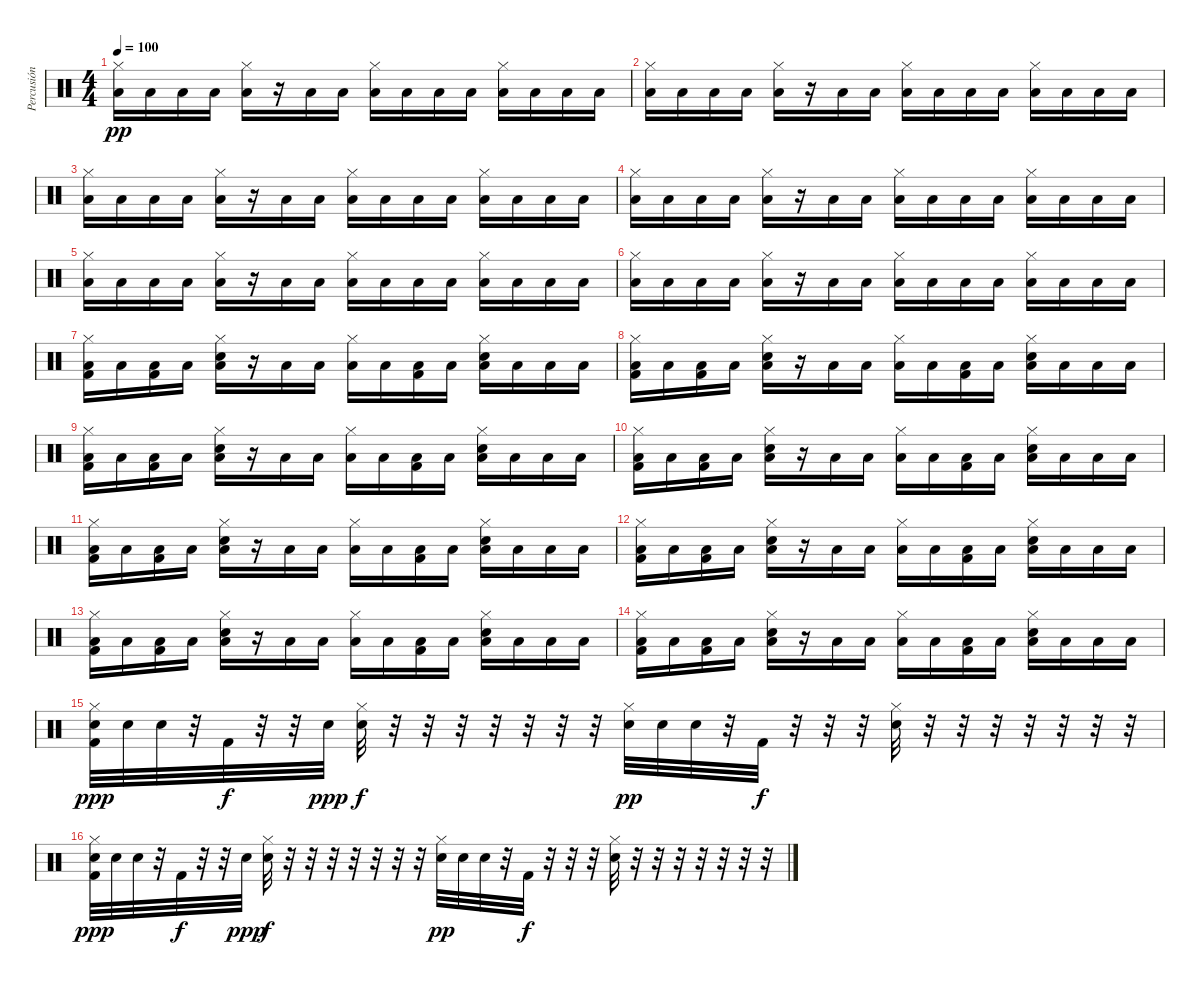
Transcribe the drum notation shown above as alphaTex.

\track ("Percusión" "Percusión") {instrument percussion}
\staff {score}
\articulation defaults
\ts (4 4)
\tempo 100
\clef neutral
\ks c
("Hi-Hat (closed)" "Low Floor Tom (hit)").16{dy pp} "Low Floor Tom (hit)".16 "Low Floor Tom (hit)".16 "Low Floor Tom (hit)".16 ("Hi-Hat (closed)" "Low Floor Tom (hit)").16 r.16 "Low Floor Tom (hit)".16 "Low Floor Tom (hit)".16 ("Hi-Hat (closed)" "Low Floor Tom (hit)").16 "Low Floor Tom (hit)".16 "Low Floor Tom (hit)".16 "Low Floor Tom (hit)".16 ("Hi-Hat (closed)" "Low Floor Tom (hit)").16 "Low Floor Tom (hit)".16 "Low Floor Tom (hit)".16 "Low Floor Tom (hit)".16 |
("Hi-Hat (closed)" "Low Floor Tom (hit)").16 "Low Floor Tom (hit)".16 "Low Floor Tom (hit)".16 "Low Floor Tom (hit)".16 ("Hi-Hat (closed)" "Low Floor Tom (hit)").16 r.16 "Low Floor Tom (hit)".16 "Low Floor Tom (hit)".16 ("Hi-Hat (closed)" "Low Floor Tom (hit)").16 "Low Floor Tom (hit)".16 "Low Floor Tom (hit)".16 "Low Floor Tom (hit)".16 ("Hi-Hat (closed)" "Low Floor Tom (hit)").16 "Low Floor Tom (hit)".16 "Low Floor Tom (hit)".16 "Low Floor Tom (hit)".16 |
("Hi-Hat (closed)" "Low Floor Tom (hit)").16 "Low Floor Tom (hit)".16 "Low Floor Tom (hit)".16 "Low Floor Tom (hit)".16 ("Hi-Hat (closed)" "Low Floor Tom (hit)").16 r.16 "Low Floor Tom (hit)".16 "Low Floor Tom (hit)".16 ("Hi-Hat (closed)" "Low Floor Tom (hit)").16 "Low Floor Tom (hit)".16 "Low Floor Tom (hit)".16 "Low Floor Tom (hit)".16 ("Hi-Hat (closed)" "Low Floor Tom (hit)").16 "Low Floor Tom (hit)".16 "Low Floor Tom (hit)".16 "Low Floor Tom (hit)".16 |
("Hi-Hat (closed)" "Low Floor Tom (hit)").16 "Low Floor Tom (hit)".16 "Low Floor Tom (hit)".16 "Low Floor Tom (hit)".16 ("Hi-Hat (closed)" "Low Floor Tom (hit)").16 r.16 "Low Floor Tom (hit)".16 "Low Floor Tom (hit)".16 ("Hi-Hat (closed)" "Low Floor Tom (hit)").16 "Low Floor Tom (hit)".16 "Low Floor Tom (hit)".16 "Low Floor Tom (hit)".16 ("Hi-Hat (closed)" "Low Floor Tom (hit)").16 "Low Floor Tom (hit)".16 "Low Floor Tom (hit)".16 "Low Floor Tom (hit)".16 |
("Hi-Hat (closed)" "Low Floor Tom (hit)").16 "Low Floor Tom (hit)".16 "Low Floor Tom (hit)".16 "Low Floor Tom (hit)".16 ("Hi-Hat (closed)" "Low Floor Tom (hit)").16 r.16 "Low Floor Tom (hit)".16 "Low Floor Tom (hit)".16 ("Hi-Hat (closed)" "Low Floor Tom (hit)").16 "Low Floor Tom (hit)".16 "Low Floor Tom (hit)".16 "Low Floor Tom (hit)".16 ("Hi-Hat (closed)" "Low Floor Tom (hit)").16 "Low Floor Tom (hit)".16 "Low Floor Tom (hit)".16 "Low Floor Tom (hit)".16 |
("Hi-Hat (closed)" "Low Floor Tom (hit)").16 "Low Floor Tom (hit)".16 "Low Floor Tom (hit)".16 "Low Floor Tom (hit)".16 ("Hi-Hat (closed)" "Low Floor Tom (hit)").16 r.16 "Low Floor Tom (hit)".16 "Low Floor Tom (hit)".16 ("Hi-Hat (closed)" "Low Floor Tom (hit)").16 "Low Floor Tom (hit)".16 "Low Floor Tom (hit)".16 "Low Floor Tom (hit)".16 ("Hi-Hat (closed)" "Low Floor Tom (hit)").16 "Low Floor Tom (hit)".16 "Low Floor Tom (hit)".16 "Low Floor Tom (hit)".16 |
("Hi-Hat (closed)" "Low Floor Tom (hit)" "Kick (hit) 2").16 "Low Floor Tom (hit)".16 ("Low Floor Tom (hit)" "Kick (hit) 2").16 "Low Floor Tom (hit)".16 ("Hi-Hat (closed)" "Electric Snare (hit)" "Low Floor Tom (hit)").16 r.16 "Low Floor Tom (hit)".16 "Low Floor Tom (hit)".16 ("Hi-Hat (closed)" "Low Floor Tom (hit)").16 "Low Floor Tom (hit)".16 ("Low Floor Tom (hit)" "Kick (hit) 2").16 "Low Floor Tom (hit)".16 ("Hi-Hat (closed)" "Electric Snare (hit)" "Low Floor Tom (hit)").16 "Low Floor Tom (hit)".16 "Low Floor Tom (hit)".16 "Low Floor Tom (hit)".16 |
("Hi-Hat (closed)" "Low Floor Tom (hit)" "Kick (hit) 2").16 "Low Floor Tom (hit)".16 ("Low Floor Tom (hit)" "Kick (hit) 2").16 "Low Floor Tom (hit)".16 ("Hi-Hat (closed)" "Electric Snare (hit)" "Low Floor Tom (hit)").16 r.16 "Low Floor Tom (hit)".16 "Low Floor Tom (hit)".16 ("Hi-Hat (closed)" "Low Floor Tom (hit)").16 "Low Floor Tom (hit)".16 ("Low Floor Tom (hit)" "Kick (hit) 2").16 "Low Floor Tom (hit)".16 ("Hi-Hat (closed)" "Electric Snare (hit)" "Low Floor Tom (hit)").16 "Low Floor Tom (hit)".16 "Low Floor Tom (hit)".16 "Low Floor Tom (hit)".16 |
("Hi-Hat (closed)" "Low Floor Tom (hit)" "Kick (hit) 2").16 "Low Floor Tom (hit)".16 ("Low Floor Tom (hit)" "Kick (hit) 2").16 "Low Floor Tom (hit)".16 ("Hi-Hat (closed)" "Electric Snare (hit)" "Low Floor Tom (hit)").16 r.16 "Low Floor Tom (hit)".16 "Low Floor Tom (hit)".16 ("Hi-Hat (closed)" "Low Floor Tom (hit)").16 "Low Floor Tom (hit)".16 ("Low Floor Tom (hit)" "Kick (hit) 2").16 "Low Floor Tom (hit)".16 ("Hi-Hat (closed)" "Electric Snare (hit)" "Low Floor Tom (hit)").16 "Low Floor Tom (hit)".16 "Low Floor Tom (hit)".16 "Low Floor Tom (hit)".16 |
("Hi-Hat (closed)" "Low Floor Tom (hit)" "Kick (hit) 2").16 "Low Floor Tom (hit)".16 ("Low Floor Tom (hit)" "Kick (hit) 2").16 "Low Floor Tom (hit)".16 ("Hi-Hat (closed)" "Electric Snare (hit)" "Low Floor Tom (hit)").16 r.16 "Low Floor Tom (hit)".16 "Low Floor Tom (hit)".16 ("Hi-Hat (closed)" "Low Floor Tom (hit)").16 "Low Floor Tom (hit)".16 ("Low Floor Tom (hit)" "Kick (hit) 2").16 "Low Floor Tom (hit)".16 ("Hi-Hat (closed)" "Electric Snare (hit)" "Low Floor Tom (hit)").16 "Low Floor Tom (hit)".16 "Low Floor Tom (hit)".16 "Low Floor Tom (hit)".16 |
("Hi-Hat (closed)" "Low Floor Tom (hit)" "Kick (hit) 2").16 "Low Floor Tom (hit)".16 ("Low Floor Tom (hit)" "Kick (hit) 2").16 "Low Floor Tom (hit)".16 ("Hi-Hat (closed)" "Electric Snare (hit)" "Low Floor Tom (hit)").16 r.16 "Low Floor Tom (hit)".16 "Low Floor Tom (hit)".16 ("Hi-Hat (closed)" "Low Floor Tom (hit)").16 "Low Floor Tom (hit)".16 ("Low Floor Tom (hit)" "Kick (hit) 2").16 "Low Floor Tom (hit)".16 ("Hi-Hat (closed)" "Electric Snare (hit)" "Low Floor Tom (hit)").16 "Low Floor Tom (hit)".16 "Low Floor Tom (hit)".16 "Low Floor Tom (hit)".16 |
("Hi-Hat (closed)" "Low Floor Tom (hit)" "Kick (hit) 2").16 "Low Floor Tom (hit)".16 ("Low Floor Tom (hit)" "Kick (hit) 2").16 "Low Floor Tom (hit)".16 ("Hi-Hat (closed)" "Electric Snare (hit)" "Low Floor Tom (hit)").16 r.16 "Low Floor Tom (hit)".16 "Low Floor Tom (hit)".16 ("Hi-Hat (closed)" "Low Floor Tom (hit)").16 "Low Floor Tom (hit)".16 ("Low Floor Tom (hit)" "Kick (hit) 2").16 "Low Floor Tom (hit)".16 ("Hi-Hat (closed)" "Electric Snare (hit)" "Low Floor Tom (hit)").16 "Low Floor Tom (hit)".16 "Low Floor Tom (hit)".16 "Low Floor Tom (hit)".16 |
("Hi-Hat (closed)" "Low Floor Tom (hit)" "Kick (hit) 2").16 "Low Floor Tom (hit)".16 ("Low Floor Tom (hit)" "Kick (hit) 2").16 "Low Floor Tom (hit)".16 ("Hi-Hat (closed)" "Electric Snare (hit)" "Low Floor Tom (hit)").16 r.16 "Low Floor Tom (hit)".16 "Low Floor Tom (hit)".16 ("Hi-Hat (closed)" "Low Floor Tom (hit)").16 "Low Floor Tom (hit)".16 ("Low Floor Tom (hit)" "Kick (hit) 2").16 "Low Floor Tom (hit)".16 ("Hi-Hat (closed)" "Electric Snare (hit)" "Low Floor Tom (hit)").16 "Low Floor Tom (hit)".16 "Low Floor Tom (hit)".16 "Low Floor Tom (hit)".16 |
("Hi-Hat (closed)" "Low Floor Tom (hit)" "Kick (hit) 2").16 "Low Floor Tom (hit)".16 ("Low Floor Tom (hit)" "Kick (hit) 2").16 "Low Floor Tom (hit)".16 ("Hi-Hat (closed)" "Electric Snare (hit)" "Low Floor Tom (hit)").16 r.16 "Low Floor Tom (hit)".16 "Low Floor Tom (hit)".16 ("Hi-Hat (closed)" "Low Floor Tom (hit)").16 "Low Floor Tom (hit)".16 ("Low Floor Tom (hit)" "Kick (hit) 2").16 "Low Floor Tom (hit)".16 ("Hi-Hat (closed)" "Electric Snare (hit)" "Low Floor Tom (hit)").16 "Low Floor Tom (hit)".16 "Low Floor Tom (hit)".16 "Low Floor Tom (hit)".16 |
("Hi-Hat (closed)" "Electric Snare (hit)" "Kick (hit) 2").32{dy ppp} "Electric Snare (hit)".32 "Electric Snare (hit)".32 r.32 "Kick (hit) 2".32{dy f} r.32 r.32 "Electric Snare (hit)".32{dy ppp} ("Hi-Hat (closed)" "Electric Snare (hit)").32{dy f} r.32 r.32 r.32 r.32 r.32 r.32 r.32 ("Hi-Hat (closed)" "Electric Snare (hit)").32{dy pp} "Electric Snare (hit)".32 "Electric Snare (hit)".32 r.32 "Kick (hit) 2".32{dy f} r.32 r.32 r.32 ("Hi-Hat (closed)" "Electric Snare (hit)").32 r.32 r.32 r.32 r.32 r.32 r.32 r.32 |
("Hi-Hat (closed)" "Electric Snare (hit)" "Kick (hit) 2").32{dy ppp} "Electric Snare (hit)".32 "Electric Snare (hit)".32 r.32 "Kick (hit) 2".32{dy f} r.32 r.32 "Electric Snare (hit)".32{dy ppp} ("Hi-Hat (closed)" "Electric Snare (hit)").32{dy f} r.32 r.32 r.32 r.32 r.32 r.32 r.32 ("Hi-Hat (closed)" "Electric Snare (hit)").32{dy pp} "Electric Snare (hit)".32 "Electric Snare (hit)".32 r.32 "Kick (hit) 2".32{dy f} r.32 r.32 r.32 ("Hi-Hat (closed)" "Electric Snare (hit)").32 r.32 r.32 r.32 r.32 r.32 r.32 r.32
